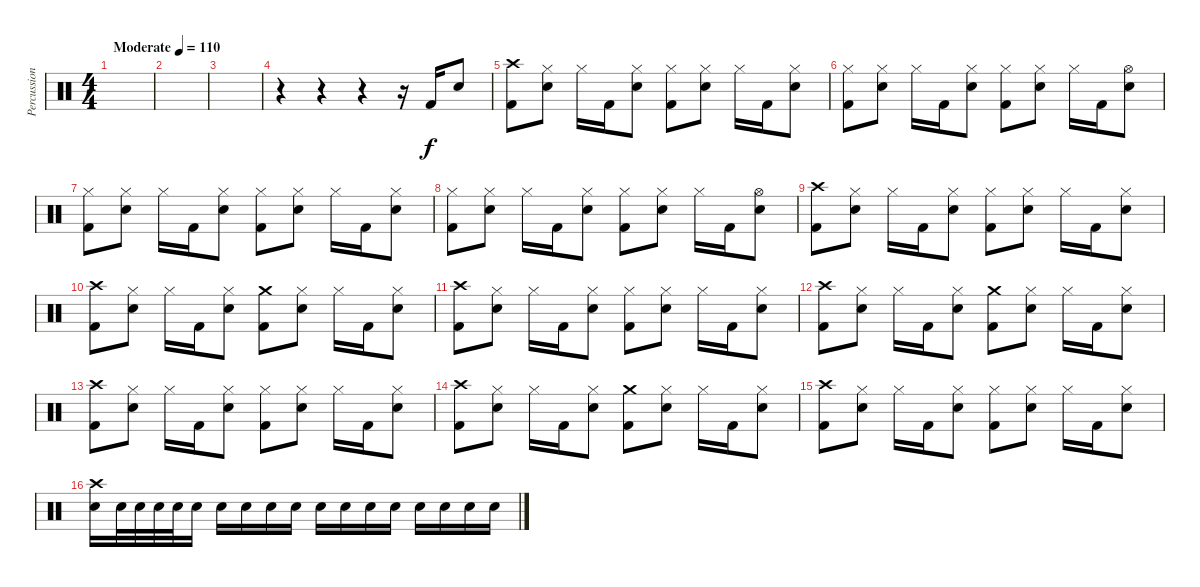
\track ("Percussion" "Percussion") {instrument percussion}
\staff {score}
\articulation defaults
\ts (4 4)
\tempo (110 "Moderate")
\clef neutral
\ks c
|
|
|
r.4 r.4 r.4 r.16 "Kick (hit) 2".16 "Electric Snare (hit)".8 |
("Crash high (hit)" "Kick (hit) 2").8 ("Hi-Hat (closed)" "Electric Snare (hit)").8 "Hi-Hat (closed)".16 "Kick (hit) 2".16 ("Hi-Hat (closed)" "Electric Snare (hit)").8 ("Hi-Hat (closed)" "Kick (hit) 2").8 ("Hi-Hat (closed)" "Electric Snare (hit)").8 "Hi-Hat (closed)".16 "Kick (hit) 2".16 ("Hi-Hat (closed)" "Electric Snare (hit)").8 |
("Hi-Hat (closed)" "Kick (hit) 2").8 ("Hi-Hat (closed)" "Electric Snare (hit)").8 "Hi-Hat (closed)".16 "Kick (hit) 2".16 ("Hi-Hat (closed)" "Electric Snare (hit)").8 ("Hi-Hat (closed)" "Kick (hit) 2").8 ("Hi-Hat (closed)" "Electric Snare (hit)").8 "Hi-Hat (closed)".16 "Kick (hit) 2".16 ("Hi-Hat (open)" "Electric Snare (hit)").8 |
("Hi-Hat (closed)" "Kick (hit) 2").8 ("Hi-Hat (closed)" "Electric Snare (hit)").8 "Hi-Hat (closed)".16 "Kick (hit) 2".16 ("Hi-Hat (closed)" "Electric Snare (hit)").8 ("Hi-Hat (closed)" "Kick (hit) 2").8 ("Hi-Hat (closed)" "Electric Snare (hit)").8 "Hi-Hat (closed)".16 "Kick (hit) 2".16 ("Hi-Hat (closed)" "Electric Snare (hit)").8 |
("Hi-Hat (closed)" "Kick (hit) 2").8 ("Hi-Hat (closed)" "Electric Snare (hit)").8 "Hi-Hat (closed)".16 "Kick (hit) 2".16 ("Hi-Hat (closed)" "Electric Snare (hit)").8 ("Hi-Hat (closed)" "Kick (hit) 2").8 ("Hi-Hat (closed)" "Electric Snare (hit)").8 "Hi-Hat (closed)".16 "Kick (hit) 2".16 ("Hi-Hat (open)" "Electric Snare (hit)").8 |
("Crash high (hit)" "Kick (hit) 2").8 ("Hi-Hat (closed)" "Electric Snare (hit)").8 "Hi-Hat (closed)".16 "Kick (hit) 2".16 ("Hi-Hat (closed)" "Electric Snare (hit)").8 ("Hi-Hat (closed)" "Kick (hit) 2").8 ("Hi-Hat (closed)" "Electric Snare (hit)").8 "Hi-Hat (closed)".16 "Kick (hit) 2".16 ("Hi-Hat (closed)" "Electric Snare (hit)").8 |
("Crash high (hit)" "Kick (hit) 2").8 ("Hi-Hat (closed)" "Electric Snare (hit)").8 "Hi-Hat (closed)".16 "Kick (hit) 2".16 ("Hi-Hat (closed)" "Electric Snare (hit)").8 ("Crash medium (hit)" "Kick (hit) 2").8 ("Hi-Hat (closed)" "Electric Snare (hit)").8 "Hi-Hat (closed)".16 "Kick (hit) 2".16 ("Hi-Hat (closed)" "Electric Snare (hit)").8 |
("Crash high (hit)" "Kick (hit) 2").8 ("Hi-Hat (closed)" "Electric Snare (hit)").8 "Hi-Hat (closed)".16 "Kick (hit) 2".16 ("Hi-Hat (closed)" "Electric Snare (hit)").8 ("Hi-Hat (closed)" "Kick (hit) 2").8 ("Hi-Hat (closed)" "Electric Snare (hit)").8 "Hi-Hat (closed)".16 "Kick (hit) 2".16 ("Hi-Hat (closed)" "Electric Snare (hit)").8 |
("Crash high (hit)" "Kick (hit) 2").8 ("Hi-Hat (closed)" "Electric Snare (hit)").8 "Hi-Hat (closed)".16 "Kick (hit) 2".16 ("Hi-Hat (closed)" "Electric Snare (hit)").8 ("Crash medium (hit)" "Kick (hit) 2").8 ("Hi-Hat (closed)" "Electric Snare (hit)").8 "Hi-Hat (closed)".16 "Kick (hit) 2".16 ("Hi-Hat (closed)" "Electric Snare (hit)").8 |
("Crash high (hit)" "Kick (hit) 2").8 ("Hi-Hat (closed)" "Electric Snare (hit)").8 "Hi-Hat (closed)".16 "Kick (hit) 2".16 ("Hi-Hat (closed)" "Electric Snare (hit)").8 ("Hi-Hat (closed)" "Kick (hit) 2").8 ("Hi-Hat (closed)" "Electric Snare (hit)").8 "Hi-Hat (closed)".16 "Kick (hit) 2".16 ("Hi-Hat (closed)" "Electric Snare (hit)").8 |
("Crash high (hit)" "Kick (hit) 2").8 ("Hi-Hat (closed)" "Electric Snare (hit)").8 "Hi-Hat (closed)".16 "Kick (hit) 2".16 ("Hi-Hat (closed)" "Electric Snare (hit)").8 ("Crash medium (hit)" "Kick (hit) 2").8 ("Hi-Hat (closed)" "Electric Snare (hit)").8 "Hi-Hat (closed)".16 "Kick (hit) 2".16 ("Hi-Hat (closed)" "Electric Snare (hit)").8 |
("Crash high (hit)" "Kick (hit) 2").8 ("Hi-Hat (closed)" "Electric Snare (hit)").8 "Hi-Hat (closed)".16 "Kick (hit) 2".16 ("Hi-Hat (closed)" "Electric Snare (hit)").8 ("Hi-Hat (closed)" "Kick (hit) 2").8 ("Hi-Hat (closed)" "Electric Snare (hit)").8 "Hi-Hat (closed)".16 "Kick (hit) 2".16 ("Hi-Hat (closed)" "Electric Snare (hit)").8 |
("Crash high (hit)" "Electric Snare (hit)").16 "Electric Snare (hit)".32 "Electric Snare (hit)".32 "Electric Snare (hit)".32 "Electric Snare (hit)".32 "Electric Snare (hit)".16 "Electric Snare (hit)".16 "Electric Snare (hit)".16 "Electric Snare (hit)".16 "Electric Snare (hit)".16 "Electric Snare (hit)".16 "Electric Snare (hit)".16 "Electric Snare (hit)".16 "Electric Snare (hit)".16 "Electric Snare (hit)".16 "Electric Snare (hit)".16 "Electric Snare (hit)".16 "Electric Snare (hit)".16
